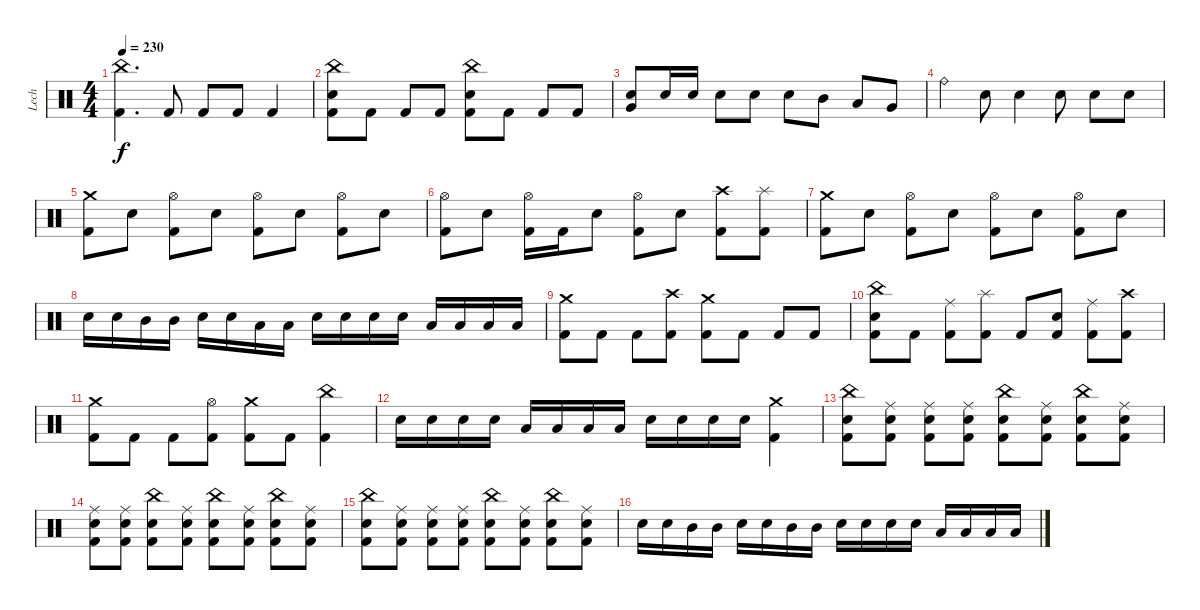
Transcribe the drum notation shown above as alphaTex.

\track ("Lech" "Lech") {instrument percussion}
\staff {score}
\articulation defaults
\ts (4 4)
\tempo 230
\clef neutral
\ks c
("China (hit)" "Kick (hit) 2").4{d dy f} "Kick (hit) 2".8 "Kick (hit) 2".8 "Kick (hit) 2".8 "Kick (hit) 2".4 |
("China (hit)" "Electric Snare (hit)" "Kick (hit) 2").8 "Kick (hit) 2".8 "Kick (hit) 2".8 "Kick (hit) 2".8 ("China (hit)" "Electric Snare (hit)" "Kick (hit) 2").8 "Kick (hit) 2".8 "Kick (hit) 2".8 "Kick (hit) 2".8 |
("Very Low Tom (hit)" "Electric Snare (hit)").8 "Electric Snare (hit)".16 "Electric Snare (hit)".16 "Electric Snare (hit)".8 "Electric Snare (hit)".8 "Electric Snare (hit)".8 "Mid Tom (hit)".8 "Low Tom (hit)".8 "Very Low Tom (hit)".8 |
"Ride (bell)".4 "Electric Snare (hit)".8 "Electric Snare (hit)".4 "Electric Snare (hit)".8 "Electric Snare (hit)".8 "Electric Snare (hit)".8 |
("Crash medium (hit)" "Kick (hit) 2").8 "Electric Snare (hit)".8 ("Hi-Hat (open)" "Kick (hit) 2").8 "Electric Snare (hit)".8 ("Hi-Hat (open)" "Kick (hit) 2").8 "Electric Snare (hit)".8 ("Hi-Hat (open)" "Kick (hit) 2").8 "Electric Snare (hit)".8 |
("Hi-Hat (open)" "Kick (hit) 2").8 "Electric Snare (hit)".8 ("Hi-Hat (open)" "Kick (hit) 2").16 "Kick (hit) 2".16 "Electric Snare (hit)".8 ("Hi-Hat (open)" "Kick (hit) 2").8 "Electric Snare (hit)".8 ("Crash high (hit)" "Kick (hit) 2").8 ("Splash (hit)" "Kick (hit) 2").8 |
("Crash medium (hit)" "Kick (hit) 2").8 "Electric Snare (hit)".8 ("Hi-Hat (open)" "Kick (hit) 2").8 "Electric Snare (hit)".8 ("Hi-Hat (open)" "Kick (hit) 2").8 "Electric Snare (hit)".8 ("Hi-Hat (open)" "Kick (hit) 2").8 "Electric Snare (hit)".8 |
"Electric Snare (hit)".16 "Electric Snare (hit)".16 "Mid Tom (hit)".16 "Mid Tom (hit)".16 "Electric Snare (hit)".16 "Electric Snare (hit)".16 "Low Tom (hit)".16 "Low Tom (hit)".16 "Electric Snare (hit)".16 "Electric Snare (hit)".16 "Electric Snare (hit)".16 "Electric Snare (hit)".16 "Low Tom (hit)".16 "Low Tom (hit)".16 "Low Tom (hit)".16 "Low Tom (hit)".16 |
("Crash medium (hit)" "Kick (hit) 2").8 "Kick (hit) 2".8 "Kick (hit) 2".8 ("Crash high (hit)" "Kick (hit) 2").8 ("Crash medium (hit)" "Kick (hit) 2").8 "Kick (hit) 2".8 "Kick (hit) 2".8 "Kick (hit) 2".8 |
("China (hit)" "Electric Snare (hit)" "Kick (hit) 2").8 "Kick (hit) 2".8 ("Ride (middle)" "Kick (hit) 2").8 ("Splash (hit)" "Kick (hit) 2").8 "Kick (hit) 2".8 ("Electric Snare (hit)" "Kick (hit) 2").8 ("Ride (middle)" "Kick (hit) 2").8 ("Crash high (hit)" "Kick (hit) 2").8 |
("Crash medium (hit)" "Kick (hit) 2").8 "Kick (hit) 2".8 "Kick (hit) 2".8 ("Hi-Hat (open)" "Kick (hit) 2").8 ("Crash medium (hit)" "Kick (hit) 2").8 "Kick (hit) 2".8 ("China (hit)" "Kick (hit) 2").4 |
"Electric Snare (hit)".16 "Electric Snare (hit)".16 "Electric Snare (hit)".16 "Electric Snare (hit)".16 "Low Tom (hit)".16 "Low Tom (hit)".16 "Low Tom (hit)".16 "Low Tom (hit)".16 "Electric Snare (hit)".16 "Electric Snare (hit)".16 "Electric Snare (hit)".16 "Electric Snare (hit)".16 ("Crash medium (hit)" "Kick (hit) 2").4 |
("China (hit)" "Electric Snare (hit)" "Kick (hit) 2").8 ("Ride (middle)" "Electric Snare (hit)" "Kick (hit) 2").8 ("Ride (middle)" "Electric Snare (hit)" "Kick (hit) 2").8 ("Ride (middle)" "Electric Snare (hit)" "Kick (hit) 2").8 ("China (hit)" "Electric Snare (hit)" "Kick (hit) 2").8 ("Ride (middle)" "Electric Snare (hit)" "Kick (hit) 2").8 ("China (hit)" "Electric Snare (hit)" "Kick (hit) 2").8 ("Ride (middle)" "Electric Snare (hit)" "Kick (hit) 2").8 |
("Ride (middle)" "Electric Snare (hit)" "Kick (hit) 2").8 ("Ride (middle)" "Electric Snare (hit)" "Kick (hit) 2").8 ("China (hit)" "Electric Snare (hit)" "Kick (hit) 2").8 ("Ride (middle)" "Electric Snare (hit)" "Kick (hit) 2").8 ("China (hit)" "Electric Snare (hit)" "Kick (hit) 2").8 ("Ride (middle)" "Electric Snare (hit)" "Kick (hit) 2").8 ("China (hit)" "Electric Snare (hit)" "Kick (hit) 2").8 ("Ride (middle)" "Electric Snare (hit)" "Kick (hit) 2").8 |
("China (hit)" "Electric Snare (hit)" "Kick (hit) 2").8 ("Ride (middle)" "Electric Snare (hit)" "Kick (hit) 2").8 ("Ride (middle)" "Electric Snare (hit)" "Kick (hit) 2").8 ("Ride (middle)" "Electric Snare (hit)" "Kick (hit) 2").8 ("China (hit)" "Electric Snare (hit)" "Kick (hit) 2").8 ("Ride (middle)" "Electric Snare (hit)" "Kick (hit) 2").8 ("China (hit)" "Electric Snare (hit)" "Kick (hit) 2").8 ("Ride (middle)" "Electric Snare (hit)" "Kick (hit) 2").8 |
"Electric Snare (hit)".16 "Electric Snare (hit)".16 "Mid Tom (hit)".16 "Mid Tom (hit)".16 "Electric Snare (hit)".16 "Electric Snare (hit)".16 "Mid Tom (hit)".16 "Mid Tom (hit)".16 "Electric Snare (hit)".16 "Electric Snare (hit)".16 "Electric Snare (hit)".16 "Electric Snare (hit)".16 "Low Tom (hit)".16 "Low Tom (hit)".16 "Low Tom (hit)".16 "Low Tom (hit)".16
